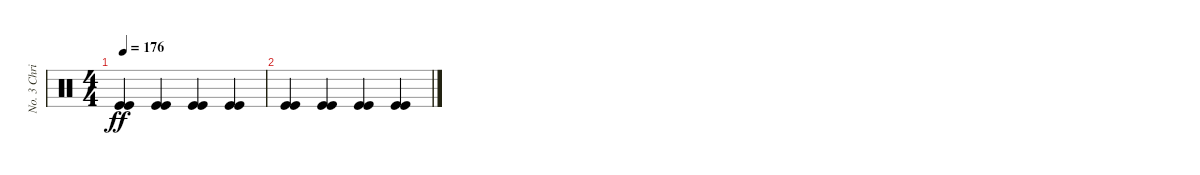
\track ("No. 3 Chris" "No. 3 Chri") {instrument percussion}
\staff {score}
\articulation defaults
\ts (4 4)
\tempo 176
\clef neutral
\ks c
("Kick (hit)" "Kick (hit)").4{dy ff} ("Kick (hit)" "Kick (hit)").4 ("Kick (hit)" "Kick (hit)").4 ("Kick (hit)" "Kick (hit)").4 |
("Kick (hit)" "Kick (hit)").4 ("Kick (hit)" "Kick (hit)").4 ("Kick (hit)" "Kick (hit)").4 ("Kick (hit)" "Kick (hit)").4
